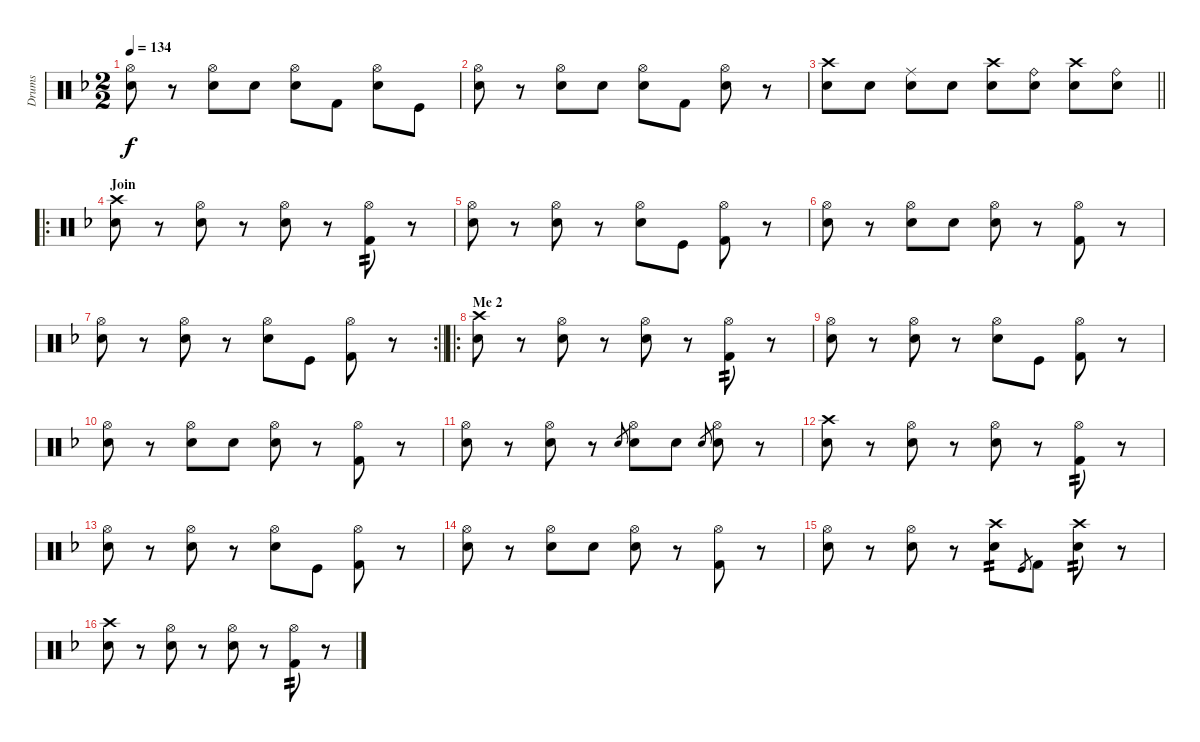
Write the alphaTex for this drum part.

\track ("Drums" "Drums") {instrument percussion}
\staff {score}
\articulation defaults
\ts (2 2)
\tempo 134
\clef neutral
\ks f
("Snare (hit) 2" "Hi-Hat (open)").8{dy f} r.8 ("Snare (hit) 2" "Hi-Hat (open)").8 "Electric Snare (hit)".8 ("Snare (hit) 2" "Hi-Hat (open)").8 "Kick (hit) 2".8 ("Snare (hit) 2" "Hi-Hat (open)").8 "Kick (hit)".8 |
("Snare (hit) 2" "Hi-Hat (open)").8 r.8 ("Snare (hit) 2" "Hi-Hat (open)").8 "Electric Snare (hit)".8 ("Snare (hit) 2" "Hi-Hat (open)").8 "Kick (hit) 2".8 ("Snare (hit) 2" "Hi-Hat (open)").8 r.8 |
\barLineRight lightlight
("Electric Snare (hit)" "Crash high (hit)").8 "Electric Snare (hit)".8 ("Electric Snare (hit)" "Ride (middle)").8 "Electric Snare (hit)".8 ("Snare (hit) 2" "Crash high (hit)").8 ("Snare (hit) 2" "Ride (bell)").8 ("Snare (hit) 2" "Crash high (hit)").8 ("Snare (hit) 2" "Ride (bell)").8 |
\ro
\section ("" "Join")
("Snare (hit) 2" "Crash high (hit)").8 r.8 ("Snare (hit) 2" "Hi-Hat (open)").8 r.8 ("Electric Snare (hit)" "Hi-Hat (open)").8 r.8 ("Kick (hit) 2" "Hi-Hat (open)").8{tp 2} r.8 |
("Snare (hit) 2" "Hi-Hat (open)").8 r.8 ("Snare (hit) 2" "Hi-Hat (open)").8 r.8 ("Electric Snare (hit)" "Hi-Hat (open)").8 "Kick (hit)".8 ("Kick (hit) 2" "Hi-Hat (open)").8 r.8 |
("Snare (hit) 2" "Hi-Hat (open)").8 r.8 ("Snare (hit) 2" "Hi-Hat (open)").8 "Snare (hit) 2".8 ("Electric Snare (hit)" "Hi-Hat (open)").8 r.8 ("Kick (hit) 2" "Hi-Hat (open)").8 r.8 |
\rc 2
\barLineRight lightlight
("Snare (hit) 2" "Hi-Hat (open)").8 r.8 ("Snare (hit) 2" "Hi-Hat (open)").8 r.8 ("Electric Snare (hit)" "Hi-Hat (open)").8 "Kick (hit)".8 ("Kick (hit) 2" "Hi-Hat (open)").8 r.8 |
\ro
\section ("" "Me 2")
("Snare (hit) 2" "Crash high (hit)").8 r.8 ("Snare (hit) 2" "Hi-Hat (open)").8 r.8 ("Electric Snare (hit)" "Hi-Hat (open)").8 r.8 ("Kick (hit) 2" "Hi-Hat (open)").8{tp 2} r.8 |
("Snare (hit) 2" "Hi-Hat (open)").8 r.8 ("Snare (hit) 2" "Hi-Hat (open)").8 r.8 ("Electric Snare (hit)" "Hi-Hat (open)").8 "Kick (hit)".8 ("Kick (hit) 2" "Hi-Hat (open)").8 r.8 |
("Snare (hit) 2" "Hi-Hat (open)").8 r.8 ("Snare (hit) 2" "Hi-Hat (open)").8 "Snare (hit) 2".8 ("Electric Snare (hit)" "Hi-Hat (open)").8 r.8 ("Kick (hit) 2" "Hi-Hat (open)").8 r.8 |
("Snare (hit) 2" "Hi-Hat (open)").8 r.8 ("Snare (hit) 2" "Hi-Hat (open)").8 r.8 "Electric Snare (hit)".8{gr} ("Electric Snare (hit)" "Hi-Hat (open)").8 "Snare (hit) 2".8 "Electric Snare (hit)".8{gr} ("Electric Snare (hit)" "Hi-Hat (open)").8 r.8 |
("Snare (hit) 2" "Crash high (hit)").8 r.8 ("Snare (hit) 2" "Hi-Hat (open)").8 r.8 ("Electric Snare (hit)" "Hi-Hat (open)").8 r.8 ("Kick (hit) 2" "Hi-Hat (open)").8{tp 2} r.8 |
("Snare (hit) 2" "Hi-Hat (open)").8 r.8 ("Snare (hit) 2" "Hi-Hat (open)").8 r.8 ("Electric Snare (hit)" "Hi-Hat (open)").8 "Kick (hit)".8 ("Kick (hit) 2" "Hi-Hat (open)").8 r.8 |
("Snare (hit) 2" "Hi-Hat (open)").8 r.8 ("Snare (hit) 2" "Hi-Hat (open)").8 "Snare (hit) 2".8 ("Electric Snare (hit)" "Hi-Hat (open)").8 r.8 ("Kick (hit) 2" "Hi-Hat (open)").8 r.8 |
("Snare (hit) 2" "Hi-Hat (open)").8 r.8 ("Snare (hit) 2" "Hi-Hat (open)").8 r.8 ("Electric Snare (hit)" "Crash high (hit)").8{tp 2} "Kick (hit)".8{gr} "Kick (hit) 2".8 ("Snare (hit) 2" "Crash high (hit)").8{tp 2} r.8 |
("Snare (hit) 2" "Crash high (hit)").8 r.8 ("Snare (hit) 2" "Hi-Hat (open)").8 r.8 ("Electric Snare (hit)" "Hi-Hat (open)").8 r.8 ("Kick (hit) 2" "Hi-Hat (open)").8{tp 2} r.8
